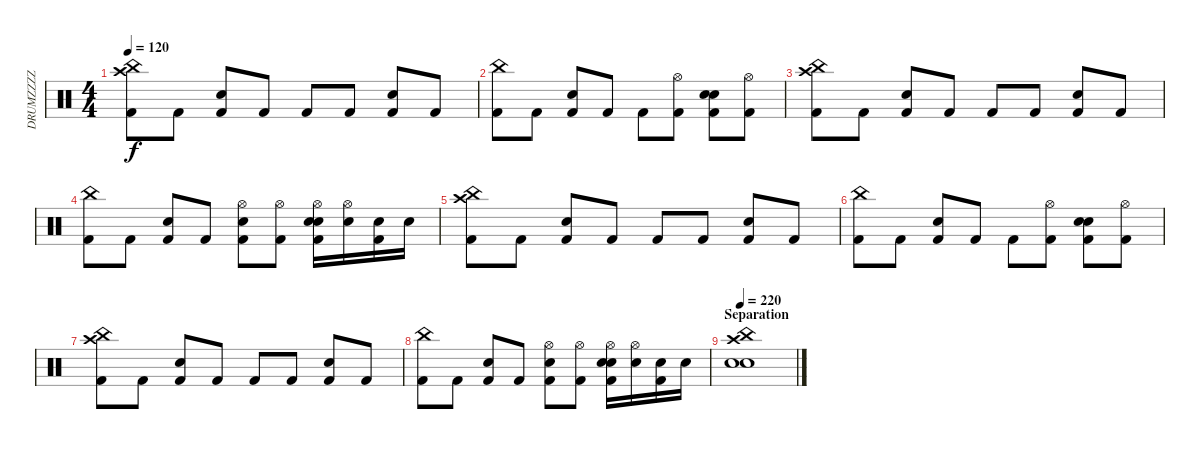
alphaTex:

\track ("DRUMZZZZ" "DRUMZZZZ") {instrument percussion}
\staff {score}
\articulation defaults
\ts (4 4)
\tempo 120
\clef neutral
\ks c
("Crash high (hit)" "China (hit)" "Kick (hit) 2").8{dy f} "Kick (hit) 2".8 ("Kick (hit) 2" "Snare (hit) 2").8 "Kick (hit) 2".8 "Kick (hit) 2".8 "Kick (hit) 2".8 ("Kick (hit) 2" "Snare (hit) 2").8 "Kick (hit) 2".8 |
("China (hit)" "Kick (hit) 2").8 "Kick (hit) 2".8 ("Kick (hit) 2" "Snare (hit) 2").8 "Kick (hit) 2".8 "Kick (hit) 2".8 ("Hi-Hat (open)" "Kick (hit) 2").8 ("Kick (hit) 2" "Electric Snare (hit)" "Snare (hit) 2").8 ("Hi-Hat (open)" "Kick (hit) 2").8 |
("Crash high (hit)" "China (hit)" "Kick (hit) 2").8 "Kick (hit) 2".8 ("Kick (hit) 2" "Snare (hit) 2").8 "Kick (hit) 2".8 "Kick (hit) 2".8 "Kick (hit) 2".8 ("Kick (hit) 2" "Snare (hit) 2").8 "Kick (hit) 2".8 |
("China (hit)" "Kick (hit) 2").8 "Kick (hit) 2".8 ("Kick (hit) 2" "Snare (hit) 2").8 "Kick (hit) 2".8 ("Hi-Hat (open)" "Kick (hit) 2" "Electric Snare (hit)").8 ("Hi-Hat (open)" "Kick (hit) 2").8 ("Hi-Hat (open)" "Kick (hit) 2" "Electric Snare (hit)" "Snare (hit) 2").16 ("Hi-Hat (open)" "Electric Snare (hit)").16 ("Kick (hit) 2" "Electric Snare (hit)").16 "Electric Snare (hit)".16 |
("Crash high (hit)" "China (hit)" "Kick (hit) 2").8 "Kick (hit) 2".8 ("Kick (hit) 2" "Snare (hit) 2").8 "Kick (hit) 2".8 "Kick (hit) 2".8 "Kick (hit) 2".8 ("Kick (hit) 2" "Snare (hit) 2").8 "Kick (hit) 2".8 |
("China (hit)" "Kick (hit) 2").8 "Kick (hit) 2".8 ("Kick (hit) 2" "Snare (hit) 2").8 "Kick (hit) 2".8 "Kick (hit) 2".8 ("Hi-Hat (open)" "Kick (hit) 2").8 ("Kick (hit) 2" "Electric Snare (hit)" "Snare (hit) 2").8 ("Hi-Hat (open)" "Kick (hit) 2").8 |
("Crash high (hit)" "China (hit)" "Kick (hit) 2").8 "Kick (hit) 2".8 ("Kick (hit) 2" "Snare (hit) 2").8 "Kick (hit) 2".8 "Kick (hit) 2".8 "Kick (hit) 2".8 ("Kick (hit) 2" "Snare (hit) 2").8 "Kick (hit) 2".8 |
("China (hit)" "Kick (hit) 2").8 "Kick (hit) 2".8 ("Kick (hit) 2" "Snare (hit) 2").8 "Kick (hit) 2".8 ("Hi-Hat (open)" "Kick (hit) 2" "Electric Snare (hit)").8 ("Hi-Hat (open)" "Kick (hit) 2").8 ("Hi-Hat (open)" "Kick (hit) 2" "Electric Snare (hit)" "Snare (hit) 2").16 ("Hi-Hat (open)" "Electric Snare (hit)").16 ("Kick (hit) 2" "Electric Snare (hit)").16 "Electric Snare (hit)".16 |
\section ("" "Separation")
\tempo 220
("Crash high (hit)" "China (hit)" "Snare (hit) 2" "Electric Snare (hit)").1
